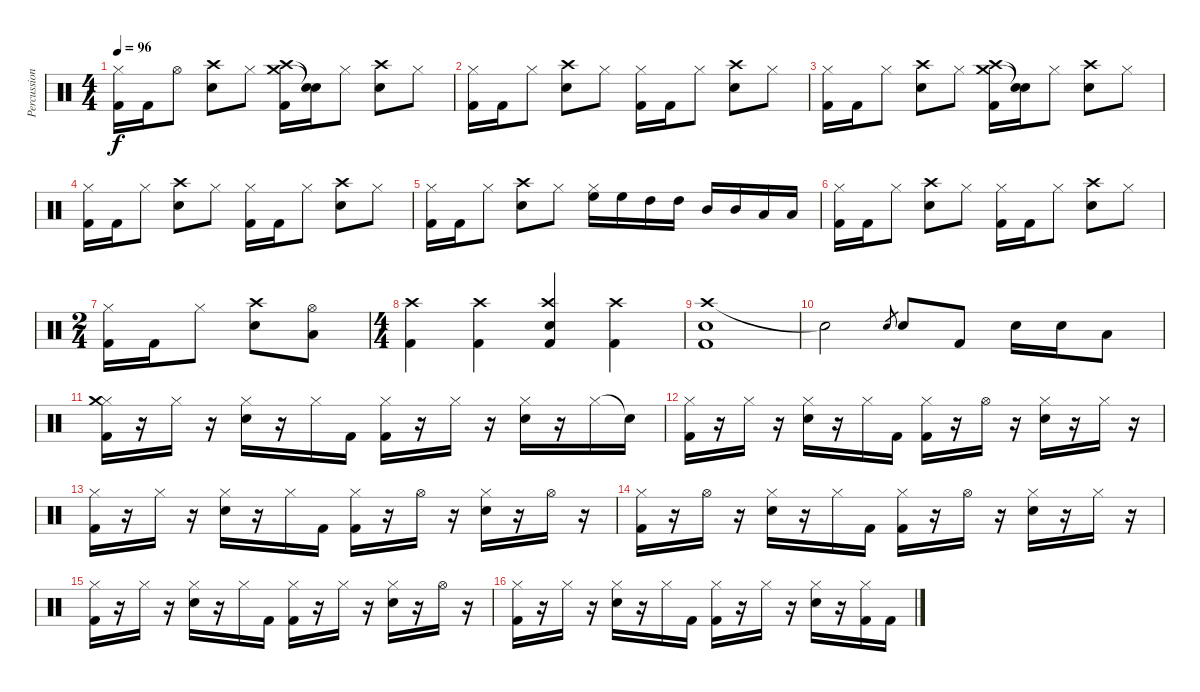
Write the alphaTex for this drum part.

\track ("Percussion" "Percussion") {instrument percussion}
\staff {score}
\articulation defaults
\ts (4 4)
\tempo 96
\clef neutral
\ks c
("Hi-Hat (closed)" "Kick (hit) 2").16{dy f} "Kick (hit) 2".16 "Hi-Hat (open)".8 ("Crash high (hit)" "Snare (hit) 2").8 "Hi-Hat (closed)".8 ("Crash high (hit)" "Crash medium (hit)" "Kick (hit) 2").16 ("Snare (hit)"{t} "Snare (hit)"{t}).16 "Hi-Hat (closed)".8 ("Crash high (hit)" "Snare (hit) 2").8 "Hi-Hat (closed)".8 |
("Hi-Hat (closed)" "Kick (hit) 2").16 "Kick (hit) 2".16 "Hi-Hat (closed)".8 ("Crash high (hit)" "Snare (hit) 2").8 "Hi-Hat (closed)".8 ("Hi-Hat (closed)" "Kick (hit) 2").16 "Kick (hit) 2".16 "Hi-Hat (closed)".8 ("Crash high (hit)" "Snare (hit) 2").8 "Hi-Hat (closed)".8 |
("Hi-Hat (closed)" "Kick (hit) 2").16 "Kick (hit) 2".16 "Hi-Hat (closed)".8 ("Crash high (hit)" "Snare (hit) 2").8 "Hi-Hat (closed)".8 ("Crash high (hit)" "Crash medium (hit)" "Kick (hit) 2").16 ("Snare (hit)"{t} "Snare (hit)"{t}).16 "Hi-Hat (closed)".8 ("Crash high (hit)" "Snare (hit) 2").8 "Hi-Hat (closed)".8 |
("Hi-Hat (closed)" "Kick (hit) 2").16 "Kick (hit) 2".16 "Hi-Hat (closed)".8 ("Crash high (hit)" "Snare (hit) 2").8 "Hi-Hat (closed)".8 ("Hi-Hat (closed)" "Kick (hit) 2").16 "Kick (hit) 2".16 "Hi-Hat (closed)".8 ("Crash high (hit)" "Snare (hit) 2").8 "Hi-Hat (closed)".8 |
("Hi-Hat (closed)" "Kick (hit) 2").16 "Kick (hit) 2".16 "Hi-Hat (closed)".8 ("Crash high (hit)" "Snare (hit) 2").8 "Hi-Hat (closed)".8 ("Hi-Hat (closed)" "High Floor Tom (hit)").16 "High Floor Tom (hit)".16 "High Tom (hit)".16 "High Tom (hit)".16 "Mid Tom (hit)".16 "Mid Tom (hit)".16 "Low Floor Tom (hit)".16 "Low Floor Tom (hit)".16 |
("Hi-Hat (closed)" "Kick (hit) 2").16 "Kick (hit) 2".16 "Hi-Hat (closed)".8 ("Crash high (hit)" "Snare (hit) 2").8 "Hi-Hat (closed)".8 ("Hi-Hat (closed)" "Kick (hit) 2").16 "Kick (hit) 2".16 "Hi-Hat (closed)".8 ("Crash high (hit)" "Snare (hit) 2").8 "Hi-Hat (closed)".8 |
\ts (2 4)
("Hi-Hat (closed)" "Kick (hit) 2").16 "Kick (hit) 2".16 "Hi-Hat (closed)".8 ("Crash high (hit)" "Snare (hit) 2").8 ("Hi-Hat (open)" "Low Floor Tom (hit)").8 |
\ts (4 4)
("Crash high (hit)" "Kick (hit) 2").4 ("Crash high (hit)" "Kick (hit) 2").4 ("Crash high (hit)" "Snare (hit) 2" "Kick (hit) 2").4 ("Crash high (hit)" "Kick (hit) 2").4 |
("Crash high (hit)" "Snare (hit) 2" "Kick (hit) 2").1 |
"Snare (hit)"{t}.2 "Snare (hit) 2".8{gr} "Snare (hit) 2".8 "Kick (hit) 2".8 "Snare (hit) 2".16 "Snare (hit) 2".16 "Low Floor Tom (hit)".8 |
("Hi-Hat (closed)" "Crash medium (hit)" "Kick (hit) 2").16 r.16 "Hi-Hat (closed)".16 r.16 ("Hi-Hat (closed)" "Snare (hit) 2").16 r.16 "Hi-Hat (closed)".16 "Kick (hit) 2".16 ("Hi-Hat (closed)" "Kick (hit) 2").16 r.16 "Hi-Hat (closed)".16 r.16 ("Hi-Hat (closed)" "Snare (hit) 2").16 r.16 "Hi-Hat (closed)".16 "Snare (hit)"{t}.16 |
("Hi-Hat (closed)" "Kick (hit) 2").16 r.16 "Hi-Hat (closed)".16 r.16 ("Hi-Hat (closed)" "Snare (hit) 2").16 r.16 "Hi-Hat (closed)".16 "Kick (hit) 2".16 ("Hi-Hat (closed)" "Kick (hit) 2").16 r.16 "Hi-Hat (open)".16 r.16 ("Hi-Hat (closed)" "Snare (hit) 2").16 r.16 "Hi-Hat (closed)".16 r.16 |
("Hi-Hat (closed)" "Kick (hit) 2").16 r.16 "Hi-Hat (closed)".16 r.16 ("Hi-Hat (closed)" "Snare (hit) 2").16 r.16 "Hi-Hat (closed)".16 "Kick (hit) 2".16 ("Hi-Hat (closed)" "Kick (hit) 2").16 r.16 "Hi-Hat (open)".16 r.16 ("Hi-Hat (closed)" "Snare (hit) 2").16 r.16 "Hi-Hat (open)".16 r.16 |
("Hi-Hat (closed)" "Kick (hit) 2").16 r.16 "Hi-Hat (open)".16 r.16 ("Hi-Hat (closed)" "Snare (hit) 2").16 r.16 "Hi-Hat (closed)".16 "Kick (hit) 2".16 ("Hi-Hat (closed)" "Kick (hit) 2").16 r.16 "Hi-Hat (open)".16 r.16 ("Hi-Hat (closed)" "Snare (hit) 2").16 r.16 "Hi-Hat (closed)".16 r.16 |
("Hi-Hat (closed)" "Kick (hit) 2").16 r.16 "Hi-Hat (closed)".16 r.16 ("Hi-Hat (closed)" "Snare (hit) 2").16 r.16 "Hi-Hat (closed)".16 "Kick (hit) 2".16 ("Hi-Hat (closed)" "Kick (hit) 2").16 r.16 "Hi-Hat (closed)".16 r.16 ("Hi-Hat (closed)" "Snare (hit) 2").16 r.16 "Hi-Hat (open)".16 r.16 |
("Hi-Hat (closed)" "Kick (hit) 2").16 r.16 "Hi-Hat (closed)".16 r.16 ("Hi-Hat (closed)" "Snare (hit) 2").16 r.16 "Hi-Hat (closed)".16 "Kick (hit) 2".16 ("Hi-Hat (closed)" "Kick (hit) 2").16 r.16 "Hi-Hat (closed)".16 r.16 ("Hi-Hat (closed)" "Snare (hit) 2").16 r.16 ("Hi-Hat (closed)" "Kick (hit) 2").16 "Kick (hit) 2".16
